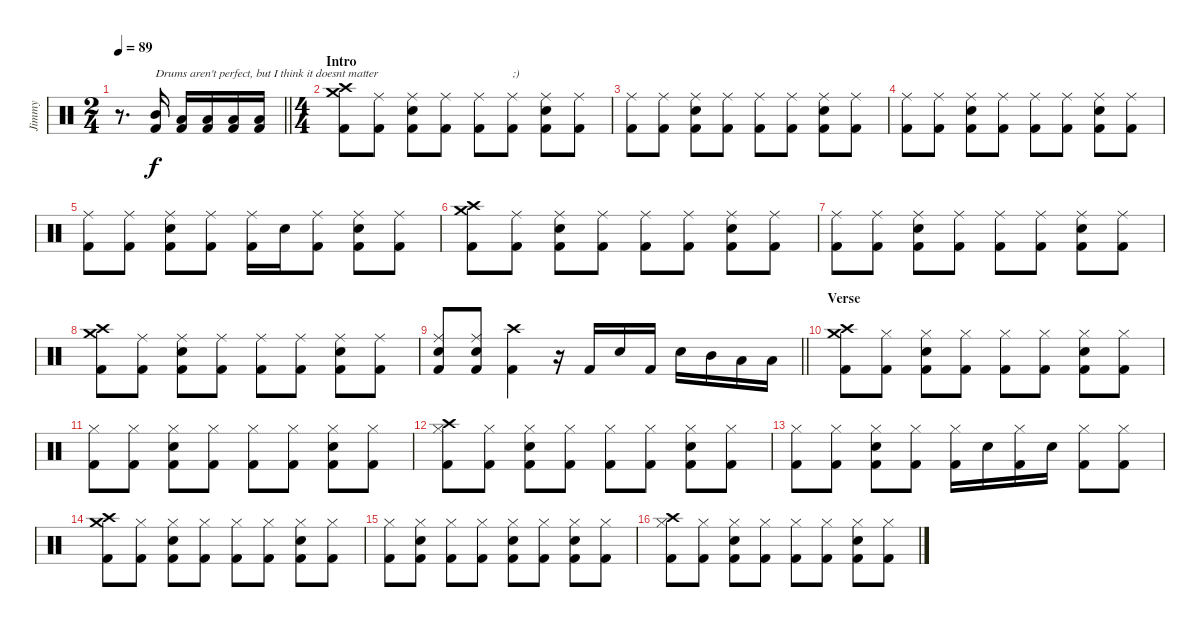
\track ("Jimmy" "Jimmy") {instrument percussion}
\staff {score}
\articulation defaults
\ts (2 4)
\tempo 89
\clef neutral
\barLineRight lightlight
\ks c
r.8{d dy f} ("Mid Tom (hit)" "Kick (hit) 2").16{txt "Drums aren't perfect, but I think it doesnt matter"} ("Low Tom (hit)" "Kick (hit) 2").16 ("Low Tom (hit)" "Kick (hit) 2").16 ("Low Tom (hit)" "Kick (hit) 2").16 ("Low Tom (hit)" "Kick (hit) 2").16 |
\ts (4 4)
\section ("" "Intro")
("Kick (hit) 2" "Crash medium (hit)" "Crash high (hit)").8 ("Kick (hit) 2" "Ride (middle)").8 ("Kick (hit) 2" "Ride (middle)" "Electric Snare (hit)").8 ("Kick (hit) 2" "Ride (middle)").8 ("Kick (hit) 2" "Ride (middle)").8 ("Kick (hit) 2" "Ride (middle)").8{txt ";)"} ("Kick (hit) 2" "Ride (middle)" "Electric Snare (hit)").8 ("Kick (hit) 2" "Ride (middle)").8 |
("Kick (hit) 2" "Ride (middle)").8 ("Kick (hit) 2" "Ride (middle)").8 ("Kick (hit) 2" "Ride (middle)" "Electric Snare (hit)").8 ("Kick (hit) 2" "Ride (middle)").8 ("Kick (hit) 2" "Ride (middle)").8 ("Kick (hit) 2" "Ride (middle)").8 ("Kick (hit) 2" "Ride (middle)" "Electric Snare (hit)").8 ("Kick (hit) 2" "Ride (middle)").8 |
("Kick (hit) 2" "Ride (middle)").8 ("Kick (hit) 2" "Ride (middle)").8 ("Kick (hit) 2" "Ride (middle)" "Electric Snare (hit)").8 ("Kick (hit) 2" "Ride (middle)").8 ("Kick (hit) 2" "Ride (middle)").8 ("Kick (hit) 2" "Ride (middle)").8 ("Kick (hit) 2" "Ride (middle)" "Electric Snare (hit)").8 ("Kick (hit) 2" "Ride (middle)").8 |
("Kick (hit) 2" "Ride (middle)").8 ("Kick (hit) 2" "Ride (middle)").8 ("Kick (hit) 2" "Ride (middle)" "Electric Snare (hit)").8 ("Kick (hit) 2" "Ride (middle)").8 ("Kick (hit) 2" "Ride (middle)").16 "Electric Snare (hit)".16 ("Kick (hit) 2" "Ride (middle)").8 ("Kick (hit) 2" "Ride (middle)" "Electric Snare (hit)").8 ("Kick (hit) 2" "Ride (middle)").8 |
("Kick (hit) 2" "Crash medium (hit)" "Crash high (hit)").8 ("Kick (hit) 2" "Ride (middle)").8 ("Kick (hit) 2" "Ride (middle)" "Electric Snare (hit)").8 ("Kick (hit) 2" "Ride (middle)").8 ("Kick (hit) 2" "Ride (middle)").8 ("Kick (hit) 2" "Ride (middle)").8 ("Kick (hit) 2" "Ride (middle)" "Electric Snare (hit)").8 ("Kick (hit) 2" "Ride (middle)").8 |
("Kick (hit) 2" "Ride (middle)").8 ("Kick (hit) 2" "Ride (middle)").8 ("Kick (hit) 2" "Ride (middle)" "Electric Snare (hit)").8 ("Kick (hit) 2" "Ride (middle)").8 ("Kick (hit) 2" "Ride (middle)").8 ("Kick (hit) 2" "Ride (middle)").8 ("Kick (hit) 2" "Ride (middle)" "Electric Snare (hit)").8 ("Kick (hit) 2" "Ride (middle)").8 |
("Kick (hit) 2" "Crash medium (hit)" "Crash high (hit)").8 ("Kick (hit) 2" "Ride (middle)").8 ("Kick (hit) 2" "Ride (middle)" "Electric Snare (hit)").8 ("Kick (hit) 2" "Ride (middle)").8 ("Kick (hit) 2" "Ride (middle)").8 ("Kick (hit) 2" "Ride (middle)").8 ("Kick (hit) 2" "Ride (middle)" "Electric Snare (hit)").8 ("Kick (hit) 2" "Ride (middle)").8 |
\barLineRight lightlight
("Kick (hit) 2" "Ride (middle)" "Electric Snare (hit)").8 ("Kick (hit) 2" "Ride (middle)" "Electric Snare (hit)").8 ("Kick (hit) 2" "Crash high (hit)").4 r.16 "Kick (hit) 2".16 "Electric Snare (hit)".16 "Kick (hit) 2".16 "Electric Snare (hit)".16 "Mid Tom (hit)".16 "Low Tom (hit)".16 "Low Tom (hit)".16 |
\section ("" "Verse")
("Kick (hit) 2" "Crash medium (hit)" "Crash high (hit)").8 ("Kick (hit) 2" "Hi-Hat (closed)").8 ("Kick (hit) 2" "Hi-Hat (closed)" "Electric Snare (hit)").8 ("Kick (hit) 2" "Hi-Hat (closed)").8 ("Kick (hit) 2" "Hi-Hat (closed)").8 ("Kick (hit) 2" "Hi-Hat (closed)").8 ("Kick (hit) 2" "Hi-Hat (closed)" "Electric Snare (hit)").8 ("Kick (hit) 2" "Hi-Hat (closed)").8 |
("Kick (hit) 2" "Hi-Hat (closed)").8 ("Kick (hit) 2" "Hi-Hat (closed)").8 ("Kick (hit) 2" "Hi-Hat (closed)" "Electric Snare (hit)").8 ("Kick (hit) 2" "Hi-Hat (closed)").8 ("Kick (hit) 2" "Hi-Hat (closed)").8 ("Kick (hit) 2" "Hi-Hat (closed)").8 ("Kick (hit) 2" "Hi-Hat (closed)" "Electric Snare (hit)").8 ("Kick (hit) 2" "Hi-Hat (closed)").8 |
("Kick (hit) 2" "Hi-Hat (closed)" "Crash high (hit)").8 ("Kick (hit) 2" "Hi-Hat (closed)").8 ("Kick (hit) 2" "Hi-Hat (closed)" "Electric Snare (hit)").8 ("Kick (hit) 2" "Hi-Hat (closed)").8 ("Kick (hit) 2" "Hi-Hat (closed)").8 ("Kick (hit) 2" "Hi-Hat (closed)").8 ("Kick (hit) 2" "Hi-Hat (closed)" "Electric Snare (hit)").8 ("Kick (hit) 2" "Hi-Hat (closed)").8 |
("Kick (hit) 2" "Hi-Hat (closed)").8 ("Kick (hit) 2" "Hi-Hat (closed)").8 ("Kick (hit) 2" "Hi-Hat (closed)" "Electric Snare (hit)").8 ("Kick (hit) 2" "Hi-Hat (closed)").8 ("Kick (hit) 2" "Hi-Hat (closed)").16 "Electric Snare (hit)".16 ("Kick (hit) 2" "Hi-Hat (closed)").16 "Electric Snare (hit)".16 ("Kick (hit) 2" "Hi-Hat (closed)").8 ("Kick (hit) 2" "Hi-Hat (closed)").8 |
("Kick (hit) 2" "Crash medium (hit)" "Crash high (hit)").8 ("Kick (hit) 2" "Hi-Hat (closed)").8 ("Kick (hit) 2" "Hi-Hat (closed)" "Electric Snare (hit)").8 ("Kick (hit) 2" "Hi-Hat (closed)").8 ("Kick (hit) 2" "Hi-Hat (closed)").8 ("Kick (hit) 2" "Hi-Hat (closed)").8 ("Kick (hit) 2" "Hi-Hat (closed)" "Electric Snare (hit)").8 ("Kick (hit) 2" "Hi-Hat (closed)").8 |
("Kick (hit) 2" "Hi-Hat (closed)").8 ("Kick (hit) 2" "Hi-Hat (closed)" "Electric Snare (hit)").8 ("Kick (hit) 2" "Hi-Hat (closed)").8 ("Kick (hit) 2" "Hi-Hat (closed)").8 ("Kick (hit) 2" "Hi-Hat (closed)" "Electric Snare (hit)").8 ("Kick (hit) 2" "Hi-Hat (closed)").8 ("Kick (hit) 2" "Hi-Hat (closed)" "Electric Snare (hit)").8 ("Kick (hit) 2" "Hi-Hat (closed)").8 |
("Kick (hit) 2" "Hi-Hat (closed)" "Crash high (hit)").8 ("Kick (hit) 2" "Hi-Hat (closed)").8 ("Kick (hit) 2" "Hi-Hat (closed)" "Electric Snare (hit)").8 ("Kick (hit) 2" "Hi-Hat (closed)").8 ("Kick (hit) 2" "Hi-Hat (closed)").8 ("Kick (hit) 2" "Hi-Hat (closed)").8 ("Kick (hit) 2" "Hi-Hat (closed)" "Electric Snare (hit)").8 ("Kick (hit) 2" "Hi-Hat (closed)").8
